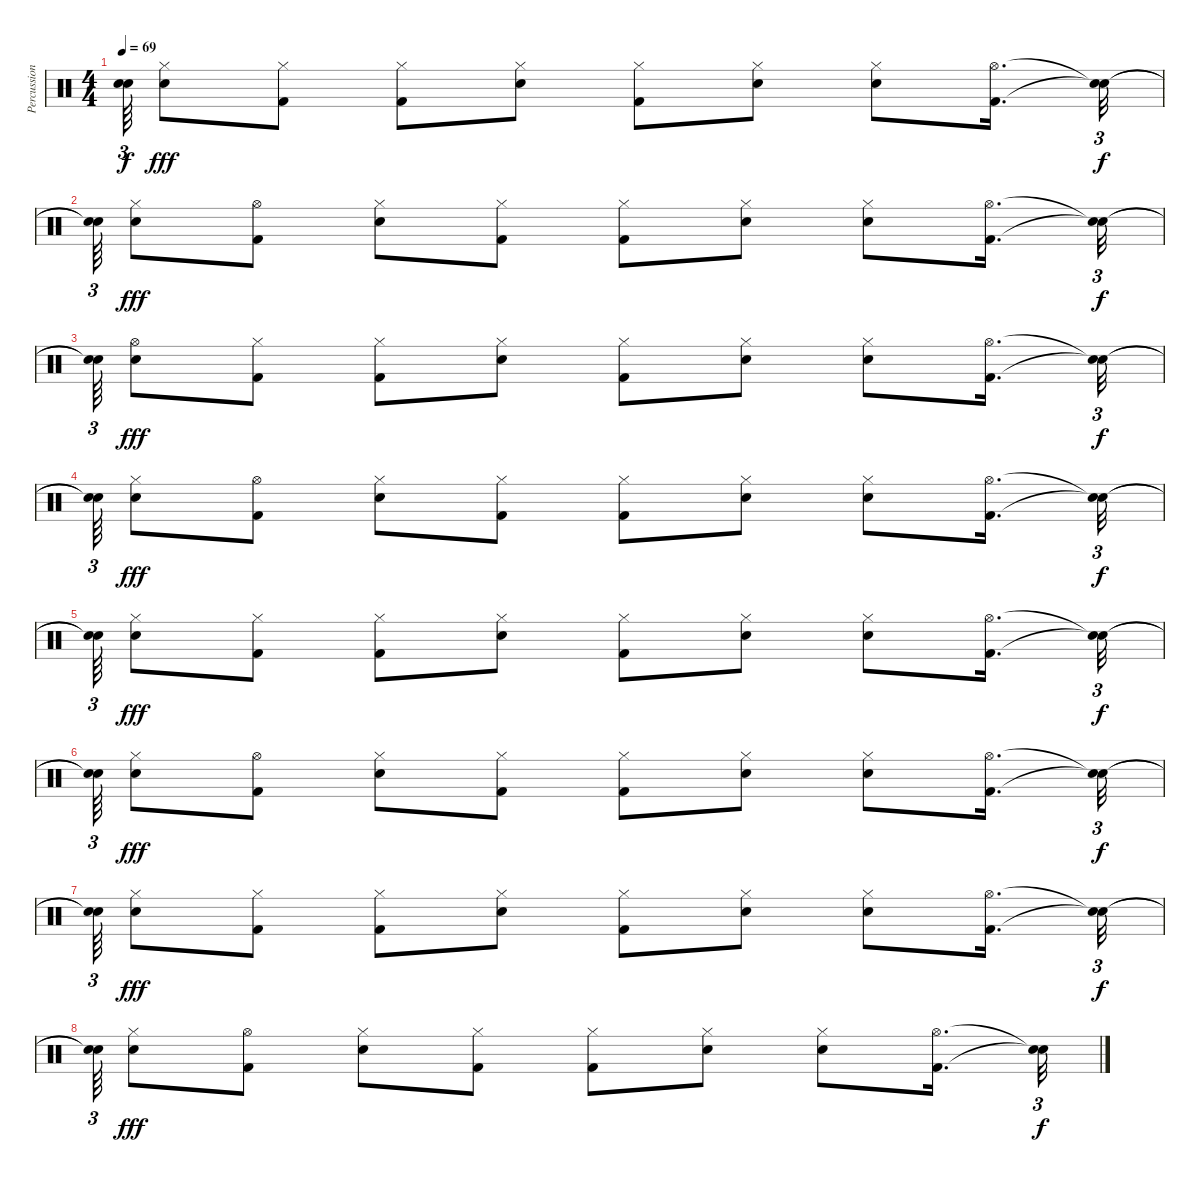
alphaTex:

\track ("Percussioni" "Percussion") {instrument percussion}
\staff {score}
\articulation defaults
\ts (4 4)
\tempo 69
\clef neutral
\ks c
("Snare (hit)"{t} "Snare (hit)"{t}).64{tu (3 2) dy f} ("Hi-Hat (closed)" "Snare (hit) 2").8{dy fff} ("Hi-Hat (closed)" "Kick (hit) 2").8 ("Hi-Hat (closed)" "Kick (hit) 2").8 ("Hi-Hat (closed)" "Snare (hit) 2").8 ("Hi-Hat (closed)" "Kick (hit) 2").8 ("Hi-Hat (closed)" "Snare (hit) 2").8 ("Hi-Hat (closed)" "Snare (hit) 2").8 ("Hi-Hat (open)" "Kick (hit) 2").16{d} ("Snare (hit)"{t} "Snare (hit)"{t}).32{tu (3 2) dy f} |
("Snare (hit)"{t} "Snare (hit)"{t}).64{tu (3 2)} ("Hi-Hat (closed)" "Snare (hit) 2").8{dy fff} ("Hi-Hat (open)" "Kick (hit) 2").8 ("Hi-Hat (closed)" "Snare (hit) 2").8 ("Hi-Hat (closed)" "Kick (hit) 2").8 ("Hi-Hat (closed)" "Kick (hit) 2").8 ("Hi-Hat (closed)" "Snare (hit) 2").8 ("Hi-Hat (closed)" "Snare (hit) 2").8 ("Hi-Hat (open)" "Kick (hit) 2").16{d} ("Snare (hit)"{t} "Snare (hit)"{t}).32{tu (3 2) dy f} |
("Snare (hit)"{t} "Snare (hit)"{t}).64{tu (3 2)} ("Hi-Hat (open)" "Snare (hit) 2").8{dy fff} ("Hi-Hat (closed)" "Kick (hit) 2").8 ("Hi-Hat (closed)" "Kick (hit) 2").8 ("Hi-Hat (closed)" "Snare (hit) 2").8 ("Hi-Hat (closed)" "Kick (hit) 2").8 ("Hi-Hat (closed)" "Snare (hit) 2").8 ("Hi-Hat (closed)" "Snare (hit) 2").8 ("Hi-Hat (open)" "Kick (hit) 2").16{d} ("Snare (hit)"{t} "Snare (hit)"{t}).32{tu (3 2) dy f} |
("Snare (hit)"{t} "Snare (hit)"{t}).64{tu (3 2)} ("Hi-Hat (closed)" "Snare (hit) 2").8{dy fff} ("Hi-Hat (open)" "Kick (hit) 2").8 ("Hi-Hat (closed)" "Snare (hit) 2").8 ("Hi-Hat (closed)" "Kick (hit) 2").8 ("Hi-Hat (closed)" "Kick (hit) 2").8 ("Hi-Hat (closed)" "Snare (hit) 2").8 ("Hi-Hat (closed)" "Snare (hit) 2").8 ("Hi-Hat (open)" "Kick (hit) 2").16{d} ("Snare (hit)"{t} "Snare (hit)"{t}).32{tu (3 2) dy f} |
("Snare (hit)"{t} "Snare (hit)"{t}).64{tu (3 2)} ("Hi-Hat (closed)" "Snare (hit) 2").8{dy fff} ("Hi-Hat (closed)" "Kick (hit) 2").8 ("Hi-Hat (closed)" "Kick (hit) 2").8 ("Hi-Hat (closed)" "Snare (hit) 2").8 ("Hi-Hat (closed)" "Kick (hit) 2").8 ("Hi-Hat (closed)" "Snare (hit) 2").8 ("Hi-Hat (closed)" "Snare (hit) 2").8 ("Hi-Hat (open)" "Kick (hit) 2").16{d} ("Snare (hit)"{t} "Snare (hit)"{t}).32{tu (3 2) dy f} |
("Snare (hit)"{t} "Snare (hit)"{t}).64{tu (3 2)} ("Hi-Hat (closed)" "Snare (hit) 2").8{dy fff} ("Hi-Hat (open)" "Kick (hit) 2").8 ("Hi-Hat (closed)" "Snare (hit) 2").8 ("Hi-Hat (closed)" "Kick (hit) 2").8 ("Hi-Hat (closed)" "Kick (hit) 2").8 ("Hi-Hat (closed)" "Snare (hit) 2").8 ("Hi-Hat (closed)" "Snare (hit) 2").8 ("Hi-Hat (open)" "Kick (hit) 2").16{d} ("Snare (hit)"{t} "Snare (hit)"{t}).32{tu (3 2) dy f} |
("Snare (hit)"{t} "Snare (hit)"{t}).64{tu (3 2)} ("Hi-Hat (closed)" "Snare (hit) 2").8{dy fff} ("Hi-Hat (closed)" "Kick (hit) 2").8 ("Hi-Hat (closed)" "Kick (hit) 2").8 ("Hi-Hat (closed)" "Snare (hit) 2").8 ("Hi-Hat (closed)" "Kick (hit) 2").8 ("Hi-Hat (closed)" "Snare (hit) 2").8 ("Hi-Hat (closed)" "Snare (hit) 2").8 ("Hi-Hat (open)" "Kick (hit) 2").16{d} ("Snare (hit)"{t} "Snare (hit)"{t}).32{tu (3 2) dy f} |
("Snare (hit)"{t} "Snare (hit)"{t}).64{tu (3 2)} ("Hi-Hat (closed)" "Snare (hit) 2").8{dy fff} ("Hi-Hat (open)" "Kick (hit) 2").8 ("Hi-Hat (closed)" "Snare (hit) 2").8 ("Hi-Hat (closed)" "Kick (hit) 2").8 ("Hi-Hat (closed)" "Kick (hit) 2").8 ("Hi-Hat (closed)" "Snare (hit) 2").8 ("Hi-Hat (closed)" "Snare (hit) 2").8 ("Hi-Hat (open)" "Kick (hit) 2").16{d} ("Snare (hit)"{t} "Snare (hit)"{t}).32{tu (3 2) dy f}
